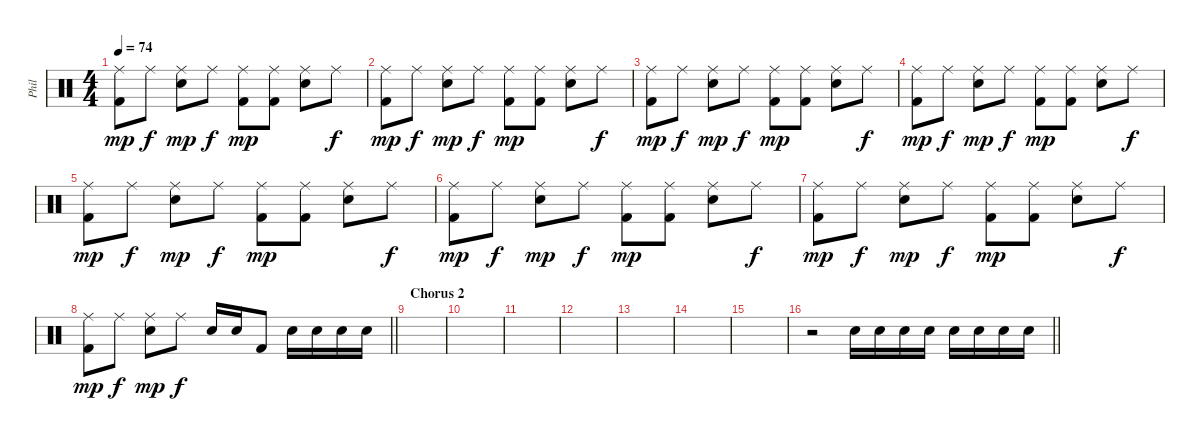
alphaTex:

\track ("Phil" "Phil") {instrument percussion}
\staff {score}
\articulation defaults
\ts (4 4)
\tempo 74
\clef neutral
\ks c
("Ride (middle)" "Kick (hit) 2").8{dy mp} "Ride (middle)".8{dy f} ("Ride (middle)" "Snare (hit) 2").8{dy mp} "Ride (middle)".8{dy f} ("Ride (middle)" "Kick (hit) 2").8{dy mp} ("Ride (middle)" "Kick (hit) 2").8 ("Ride (middle)" "Snare (hit) 2").8 "Ride (middle)".8{dy f} |
("Ride (middle)" "Kick (hit) 2").8{dy mp} "Ride (middle)".8{dy f} ("Ride (middle)" "Snare (hit) 2").8{dy mp} "Ride (middle)".8{dy f} ("Ride (middle)" "Kick (hit) 2").8{dy mp} ("Ride (middle)" "Kick (hit) 2").8 ("Ride (middle)" "Snare (hit) 2").8 "Ride (middle)".8{dy f} |
("Ride (middle)" "Kick (hit) 2").8{dy mp} "Ride (middle)".8{dy f} ("Ride (middle)" "Snare (hit) 2").8{dy mp} "Ride (middle)".8{dy f} ("Ride (middle)" "Kick (hit) 2").8{dy mp} ("Ride (middle)" "Kick (hit) 2").8 ("Ride (middle)" "Snare (hit) 2").8 "Ride (middle)".8{dy f} |
("Ride (middle)" "Kick (hit) 2").8{dy mp} "Ride (middle)".8{dy f} ("Ride (middle)" "Snare (hit) 2").8{dy mp} "Ride (middle)".8{dy f} ("Ride (middle)" "Kick (hit) 2").8{dy mp} ("Ride (middle)" "Kick (hit) 2").8 ("Ride (middle)" "Snare (hit) 2").8 "Ride (middle)".8{dy f} |
("Ride (middle)" "Kick (hit) 2").8{dy mp} "Ride (middle)".8{dy f} ("Ride (middle)" "Snare (hit) 2").8{dy mp} "Ride (middle)".8{dy f} ("Ride (middle)" "Kick (hit) 2").8{dy mp} ("Ride (middle)" "Kick (hit) 2").8 ("Ride (middle)" "Snare (hit) 2").8 "Ride (middle)".8{dy f} |
("Ride (middle)" "Kick (hit) 2").8{dy mp} "Ride (middle)".8{dy f} ("Ride (middle)" "Snare (hit) 2").8{dy mp} "Ride (middle)".8{dy f} ("Ride (middle)" "Kick (hit) 2").8{dy mp} ("Ride (middle)" "Kick (hit) 2").8 ("Ride (middle)" "Snare (hit) 2").8 "Ride (middle)".8{dy f} |
("Ride (middle)" "Kick (hit) 2").8{dy mp} "Ride (middle)".8{dy f} ("Ride (middle)" "Snare (hit) 2").8{dy mp} "Ride (middle)".8{dy f} ("Ride (middle)" "Kick (hit) 2").8{dy mp} ("Ride (middle)" "Kick (hit) 2").8 ("Ride (middle)" "Snare (hit) 2").8 "Ride (middle)".8{dy f} |
\barLineRight lightlight
("Ride (middle)" "Kick (hit) 2").8{dy mp} "Ride (middle)".8{dy f} ("Ride (middle)" "Snare (hit) 2").8{dy mp} "Ride (middle)".8{dy f} "Snare (hit) 2".16 "Snare (hit) 2".16 "Kick (hit) 2".8 "Snare (hit) 2".16 "Snare (hit) 2".16 "Snare (hit) 2".16 "Snare (hit) 2".16 |
\section ("" "Chorus 2")
|
|
|
|
|
|
|
\barLineRight lightlight
r.2 "Snare (hit) 2".16{volume 16} "Snare (hit) 2".16 "Snare (hit) 2".16 "Snare (hit) 2".16 "Snare (hit) 2".16 "Snare (hit) 2".16 "Snare (hit) 2".16 "Snare (hit) 2".16
